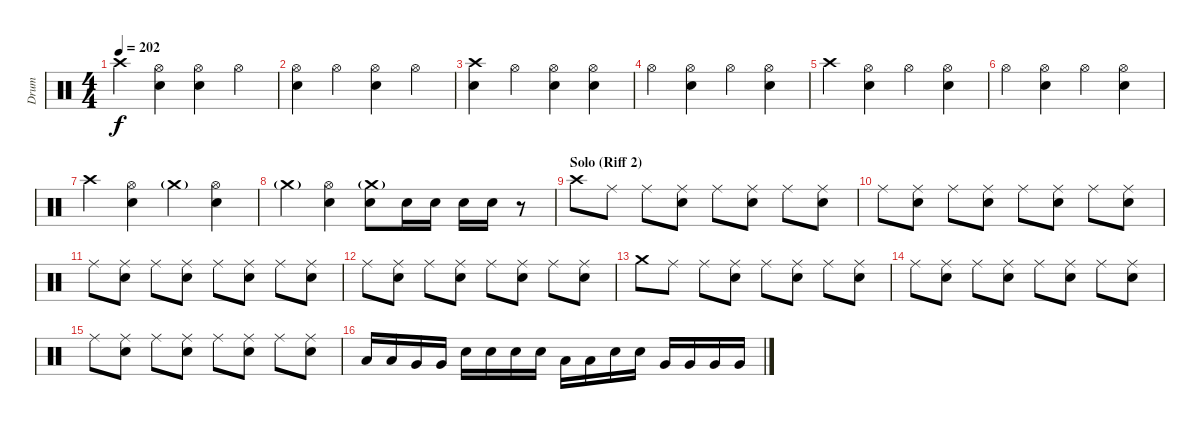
\track ("Drum" "Drum") {instrument percussion}
\staff {score}
\articulation defaults
\ts (4 4)
\tempo 202
\clef neutral
\ks c "Crash high (hit)".4{dy f}
("Hi-Hat (open)" "Electric Snare (hit)").4 ("Hi-Hat (open)" "Electric Snare (hit)").4 "Hi-Hat (open)".4 |
("Hi-Hat (open)" "Electric Snare (hit)").4 "Hi-Hat (open)".4 ("Hi-Hat (open)" "Electric Snare (hit)").4 "Hi-Hat (open)".4 |
("Crash high (hit)" "Electric Snare (hit)").4 "Hi-Hat (open)".4 ("Hi-Hat (open)" "Electric Snare (hit)").4 ("Hi-Hat (open)" "Electric Snare (hit)").4 |
"Hi-Hat (open)".4 ("Hi-Hat (open)" "Electric Snare (hit)").4 "Hi-Hat (open)".4 ("Hi-Hat (open)" "Electric Snare (hit)").4 |
"Crash high (hit)".4 ("Hi-Hat (open)" "Electric Snare (hit)").4 "Hi-Hat (open)".4 ("Hi-Hat (open)" "Electric Snare (hit)").4 |
"Hi-Hat (open)".4 ("Hi-Hat (open)" "Electric Snare (hit)").4 "Hi-Hat (open)".4 ("Hi-Hat (open)" "Electric Snare (hit)").4 |
"Crash high (hit)".4 ("Hi-Hat (open)" "Electric Snare (hit)").4 "Crash medium (hit)"{g}.4 ("Hi-Hat (open)" "Electric Snare (hit)").4 |
"Crash medium (hit)"{g}.4 ("Hi-Hat (open)" "Electric Snare (hit)").4 ("Crash medium (hit)"{g} "Electric Snare (hit)").8 "Electric Snare (hit)".16 "Electric Snare (hit)".16 "Electric Snare (hit)".16 "Electric Snare (hit)".16 r.8 |
\section ("" "Solo (Riff 2)")
"Crash high (hit)".8 "Ride (middle)".8 "Ride (middle)".8 ("Ride (middle)" "Electric Snare (hit)").8 "Ride (middle)".8 ("Ride (middle)" "Electric Snare (hit)").8 "Ride (middle)".8 ("Ride (middle)" "Electric Snare (hit)").8 |
"Ride (middle)".8 ("Ride (middle)" "Electric Snare (hit)").8 "Ride (middle)".8 ("Ride (middle)" "Electric Snare (hit)").8 "Ride (middle)".8 ("Ride (middle)" "Electric Snare (hit)").8 "Ride (middle)".8 ("Ride (middle)" "Electric Snare (hit)").8 |
"Ride (middle)".8 ("Ride (middle)" "Electric Snare (hit)").8 "Ride (middle)".8 ("Ride (middle)" "Electric Snare (hit)").8 "Ride (middle)".8 ("Ride (middle)" "Electric Snare (hit)").8 "Ride (middle)".8 ("Ride (middle)" "Electric Snare (hit)").8 |
"Ride (middle)".8 ("Ride (middle)" "Electric Snare (hit)").8 "Ride (middle)".8 ("Ride (middle)" "Electric Snare (hit)").8 "Ride (middle)".8 ("Ride (middle)" "Electric Snare (hit)").8 "Ride (middle)".8 ("Ride (middle)" "Electric Snare (hit)").8 |
"Crash medium (hit)".8 "Ride (middle)".8 "Ride (middle)".8 ("Ride (middle)" "Electric Snare (hit)").8 "Ride (middle)".8 ("Ride (middle)" "Electric Snare (hit)").8 "Ride (middle)".8 ("Ride (middle)" "Electric Snare (hit)").8 |
"Ride (middle)".8 ("Ride (middle)" "Electric Snare (hit)").8 "Ride (middle)".8 ("Ride (middle)" "Electric Snare (hit)").8 "Ride (middle)".8 ("Ride (middle)" "Electric Snare (hit)").8 "Ride (middle)".8 ("Ride (middle)" "Electric Snare (hit)").8 |
"Ride (middle)".8 ("Ride (middle)" "Electric Snare (hit)").8 "Ride (middle)".8 ("Ride (middle)" "Electric Snare (hit)").8 "Ride (middle)".8 ("Ride (middle)" "Electric Snare (hit)").8 "Ride (middle)".8 ("Ride (middle)" "Electric Snare (hit)").8 |
"Low Tom (hit)".16 "Low Tom (hit)".16 "Very Low Tom (hit)".16 "Very Low Tom (hit)".16 "Electric Snare (hit)".16 "Electric Snare (hit)".16 "Electric Snare (hit)".16 "Electric Snare (hit)".16 "Low Tom (hit)".16 "Low Tom (hit)".16 "Electric Snare (hit)".16 "Electric Snare (hit)".16 "Very Low Tom (hit)".16 "Very Low Tom (hit)".16 "Very Low Tom (hit)".16 "Very Low Tom (hit)".16
